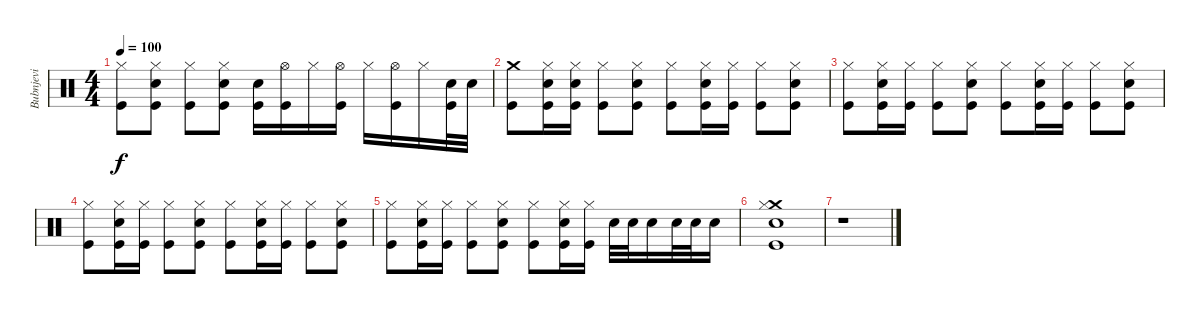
\track ("Bubnjevi" "Bubnjevi") {instrument percussion}
\staff {score}
\articulation defaults
\ts (4 4)
\tempo 100
\clef neutral
\ks c
("Hi-Hat (closed)" "Kick (hit)").8{dy f} ("Electric Snare (hit)" "Hi-Hat (closed)" "Kick (hit)").8 ("Hi-Hat (closed)" "Kick (hit)").8 ("Electric Snare (hit)" "Hi-Hat (closed)" "Kick (hit)").8 ("Electric Snare (hit)" "Kick (hit)").16 ("Hi-Hat (open)" "Kick (hit)").16 "Hi-Hat (closed)".16 ("Hi-Hat (open)" "Kick (hit)").16 "Hi-Hat (closed)".16 ("Hi-Hat (open)" "Kick (hit)").16 "Hi-Hat (closed)".16 ("Electric Snare (hit)" "Kick (hit)").32 "Electric Snare (hit)".32 |
("Crash medium (hit)" "Kick (hit)").8 ("Electric Snare (hit)" "Hi-Hat (closed)" "Kick (hit)").16 ("Electric Snare (hit)" "Hi-Hat (closed)" "Kick (hit)").16 ("Hi-Hat (closed)" "Kick (hit)").8 ("Electric Snare (hit)" "Hi-Hat (closed)" "Kick (hit)").8 ("Hi-Hat (closed)" "Kick (hit)").8 ("Electric Snare (hit)" "Hi-Hat (closed)" "Kick (hit)").16 ("Hi-Hat (closed)" "Kick (hit)").16 ("Hi-Hat (closed)" "Kick (hit)").8 ("Electric Snare (hit)" "Hi-Hat (closed)" "Kick (hit)").8 |
("Hi-Hat (closed)" "Kick (hit)").8 ("Electric Snare (hit)" "Hi-Hat (closed)" "Kick (hit)").16 ("Hi-Hat (closed)" "Kick (hit)").16 ("Hi-Hat (closed)" "Kick (hit)").8 ("Electric Snare (hit)" "Hi-Hat (closed)" "Kick (hit)").8 ("Hi-Hat (closed)" "Kick (hit)").8 ("Electric Snare (hit)" "Hi-Hat (closed)" "Kick (hit)").16 ("Hi-Hat (closed)" "Kick (hit)").16 ("Hi-Hat (closed)" "Kick (hit)").8 ("Electric Snare (hit)" "Hi-Hat (closed)" "Kick (hit)").8 |
("Hi-Hat (closed)" "Kick (hit)").8 ("Electric Snare (hit)" "Hi-Hat (closed)" "Kick (hit)").16 ("Hi-Hat (closed)" "Kick (hit)").16 ("Hi-Hat (closed)" "Kick (hit)").8 ("Electric Snare (hit)" "Hi-Hat (closed)" "Kick (hit)").8 ("Hi-Hat (closed)" "Kick (hit)").8 ("Electric Snare (hit)" "Hi-Hat (closed)" "Kick (hit)").16 ("Hi-Hat (closed)" "Kick (hit)").16 ("Hi-Hat (closed)" "Kick (hit)").8 ("Electric Snare (hit)" "Hi-Hat (closed)" "Kick (hit)").8 |
("Hi-Hat (closed)" "Kick (hit)").8 ("Electric Snare (hit)" "Hi-Hat (closed)" "Kick (hit)").16 ("Hi-Hat (closed)" "Kick (hit)").16 ("Hi-Hat (closed)" "Kick (hit)").8 ("Electric Snare (hit)" "Hi-Hat (closed)" "Kick (hit)").8 ("Hi-Hat (closed)" "Kick (hit)").8 ("Electric Snare (hit)" "Hi-Hat (closed)" "Kick (hit)").16 ("Hi-Hat (closed)" "Kick (hit)").16 "Electric Snare (hit)".32 "Electric Snare (hit)".32 "Electric Snare (hit)".16 "Electric Snare (hit)".32 "Electric Snare (hit)".32 "Electric Snare (hit)".16 |
("Crash medium (hit)" "Electric Snare (hit)" "Hi-Hat (closed)" "Kick (hit)").1 |
r.1
